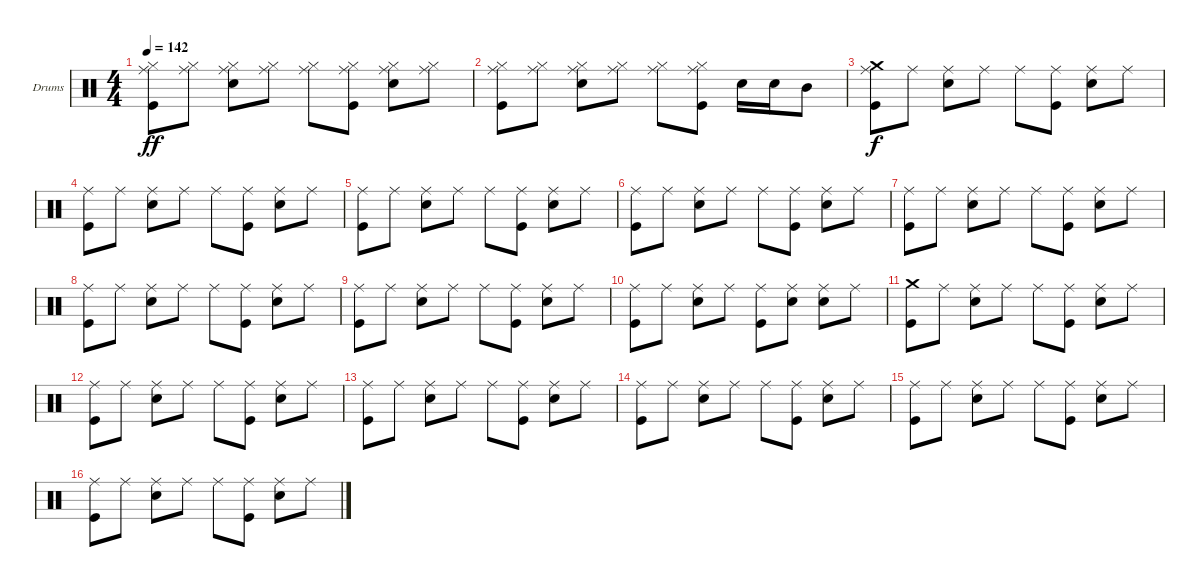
\bracketExtendMode groupsimilarinstruments
\firstSystemTrackNameOrientation horizontal
\otherSystemsTrackNameOrientation horizontal
\track ("Drumkit" "Drums") {instrument percussion}
\staff {score}
\articulation defaults
\ts (4 4)
\tempo 142
\clef neutral
\ks c
("Ride (middle)" "Kick (hit)" "Hi-Hat (closed)").8{dy ff} ("Ride (middle)" "Hi-Hat (closed)").8 ("Ride (middle)" "Snare (hit) 2" "Hi-Hat (closed)").8 ("Ride (middle)" "Hi-Hat (closed)").8 ("Ride (middle)" "Hi-Hat (closed)").8 ("Ride (middle)" "Kick (hit)" "Hi-Hat (closed)").8 ("Ride (middle)" "Snare (hit) 2" "Hi-Hat (closed)").8 ("Ride (middle)" "Hi-Hat (closed)").8 |
("Kick (hit)" "Hi-Hat (closed)" "Ride (middle)").8 ("Hi-Hat (closed)" "Ride (middle)").8 ("Snare (hit) 2" "Hi-Hat (closed)" "Ride (middle)").8 ("Ride (middle)" "Hi-Hat (closed)").8 ("Ride (middle)" "Hi-Hat (closed)").8 ("Kick (hit)" "Ride (middle)" "Hi-Hat (closed)").8 "Snare (hit) 2".16 "Snare (hit) 2".16 "Mid Tom (hit)".8 |
("Ride (middle)" "Kick (hit)" "Crash medium (hit)").8{dy f} "Ride (middle)".8 ("Ride (middle)" "Snare (hit) 2").8 "Ride (middle)".8 "Ride (middle)".8 ("Ride (middle)" "Kick (hit)").8 ("Ride (middle)" "Snare (hit) 2").8 "Ride (middle)".8 |
("Kick (hit)" "Ride (middle)").8 "Ride (middle)".8 ("Ride (middle)" "Snare (hit) 2").8 "Ride (middle)".8 "Ride (middle)".8 ("Ride (middle)" "Kick (hit)").8 ("Ride (middle)" "Snare (hit) 2").8 "Ride (middle)".8 |
("Ride (middle)" "Kick (hit)").8 "Ride (middle)".8 ("Ride (middle)" "Snare (hit) 2").8 "Ride (middle)".8 "Ride (middle)".8 ("Ride (middle)" "Kick (hit)").8 ("Ride (middle)" "Snare (hit) 2").8 "Ride (middle)".8 |
("Ride (middle)" "Kick (hit)").8 "Ride (middle)".8 ("Ride (middle)" "Snare (hit) 2").8 "Ride (middle)".8 "Ride (middle)".8 ("Ride (middle)" "Kick (hit)").8 ("Ride (middle)" "Snare (hit) 2").8 "Ride (middle)".8 |
("Ride (middle)" "Kick (hit)").8 "Ride (middle)".8 ("Ride (middle)" "Snare (hit) 2").8 "Ride (middle)".8 "Ride (middle)".8 ("Ride (middle)" "Kick (hit)").8 ("Ride (middle)" "Snare (hit) 2").8 "Ride (middle)".8 |
("Kick (hit)" "Ride (middle)").8 "Ride (middle)".8 ("Ride (middle)" "Snare (hit) 2").8 "Ride (middle)".8 "Ride (middle)".8 ("Ride (middle)" "Kick (hit)").8 ("Ride (middle)" "Snare (hit) 2").8 "Ride (middle)".8 |
("Ride (middle)" "Kick (hit)").8 "Ride (middle)".8 ("Ride (middle)" "Snare (hit) 2").8 "Ride (middle)".8 "Ride (middle)".8 ("Ride (middle)" "Kick (hit)").8 ("Ride (middle)" "Snare (hit) 2").8 "Ride (middle)".8 |
("Ride (middle)" "Kick (hit)").8 "Ride (middle)".8 ("Ride (middle)" "Snare (hit) 2").8 "Ride (middle)".8 ("Ride (middle)" "Kick (hit)").8 ("Ride (middle)" "Snare (hit) 2").8 ("Ride (middle)" "Snare (hit) 2").8 "Ride (middle)".8 |
("Kick (hit)" "Crash medium (hit)").8 "Ride (middle)".8 ("Ride (middle)" "Snare (hit) 2").8 "Ride (middle)".8 "Ride (middle)".8 ("Ride (middle)" "Kick (hit)").8 ("Ride (middle)" "Snare (hit) 2").8 "Ride (middle)".8 |
("Kick (hit)" "Ride (middle)").8 "Ride (middle)".8 ("Ride (middle)" "Snare (hit) 2").8 "Ride (middle)".8 "Ride (middle)".8 ("Ride (middle)" "Kick (hit)").8 ("Ride (middle)" "Snare (hit) 2").8 "Ride (middle)".8 |
("Ride (middle)" "Kick (hit)").8 "Ride (middle)".8 ("Ride (middle)" "Snare (hit) 2").8 "Ride (middle)".8 "Ride (middle)".8 ("Ride (middle)" "Kick (hit)").8 ("Ride (middle)" "Snare (hit) 2").8 "Ride (middle)".8 |
("Ride (middle)" "Kick (hit)").8 "Ride (middle)".8 ("Ride (middle)" "Snare (hit) 2").8 "Ride (middle)".8 "Ride (middle)".8 ("Ride (middle)" "Kick (hit)").8 ("Ride (middle)" "Snare (hit) 2").8 "Ride (middle)".8 |
("Ride (middle)" "Kick (hit)").8 "Ride (middle)".8 ("Ride (middle)" "Snare (hit) 2").8 "Ride (middle)".8 "Ride (middle)".8 ("Ride (middle)" "Kick (hit)").8 ("Ride (middle)" "Snare (hit) 2").8 "Ride (middle)".8 |
("Kick (hit)" "Ride (middle)").8 "Ride (middle)".8 ("Ride (middle)" "Snare (hit) 2").8 "Ride (middle)".8 "Ride (middle)".8 ("Ride (middle)" "Kick (hit)").8 ("Ride (middle)" "Snare (hit) 2").8 "Ride (middle)".8
